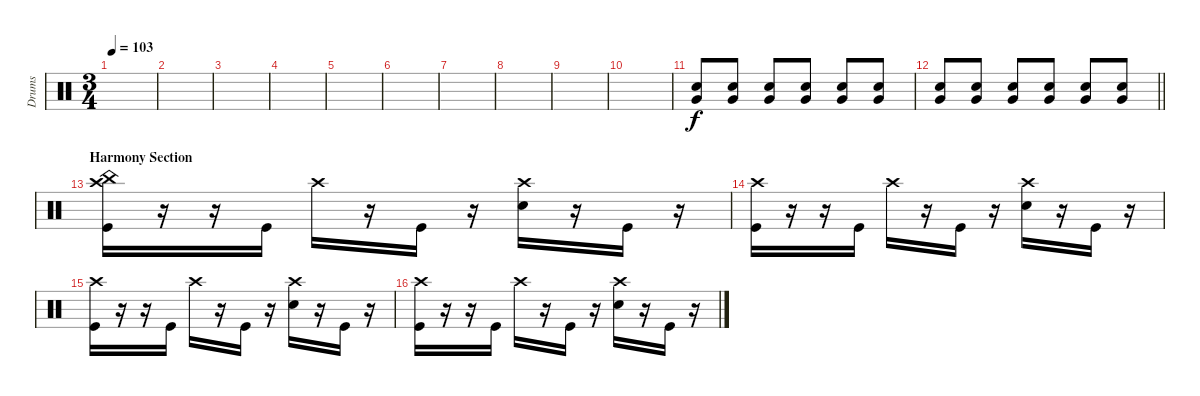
\track ("Drums" "Drums") {instrument percussion}
\staff {score}
\articulation defaults
\ts (3 4)
\tempo 103
\clef neutral
\ks c
|
|
|
|
|
|
|
|
|
|
("Snare (hit) 2" "Very Low Tom (hit)").8{volume 16} ("Snare (hit) 2" "Very Low Tom (hit)").8 ("Snare (hit) 2" "Very Low Tom (hit)").8 ("Snare (hit) 2" "Very Low Tom (hit)").8 ("Snare (hit) 2" "Very Low Tom (hit)").8 ("Snare (hit) 2" "Very Low Tom (hit)").8 |
\barLineRight lightlight
("Snare (hit) 2" "Very Low Tom (hit)").8 ("Snare (hit) 2" "Very Low Tom (hit)").8 ("Snare (hit) 2" "Very Low Tom (hit)").8 ("Snare (hit) 2" "Very Low Tom (hit)").8 ("Snare (hit) 2" "Very Low Tom (hit)").8 ("Snare (hit) 2" "Very Low Tom (hit)").8 |
\section ("" "Harmony Section")
("Crash high (hit)" "China (hit)" "Kick (hit)").16 r.16 r.16 "Kick (hit)".16 "Crash high (hit)".16 r.16 "Kick (hit)".16 r.16 ("Crash high (hit)" "Snare (hit) 2").16 r.16 "Kick (hit)".16 r.16 |
("Crash high (hit)" "Kick (hit)").16 r.16 r.16 "Kick (hit)".16 "Crash high (hit)".16 r.16 "Kick (hit)".16 r.16 ("Crash high (hit)" "Snare (hit) 2").16 r.16 "Kick (hit)".16 r.16 |
("Crash high (hit)" "Kick (hit)").16 r.16 r.16 "Kick (hit)".16 "Crash high (hit)".16 r.16 "Kick (hit)".16 r.16 ("Crash high (hit)" "Snare (hit) 2").16 r.16 "Kick (hit)".16 r.16 |
("Crash high (hit)" "Kick (hit)").16 r.16 r.16 "Kick (hit)".16 "Crash high (hit)".16 r.16 "Kick (hit)".16 r.16 ("Crash high (hit)" "Snare (hit) 2").16 r.16 "Kick (hit)".16 r.16
